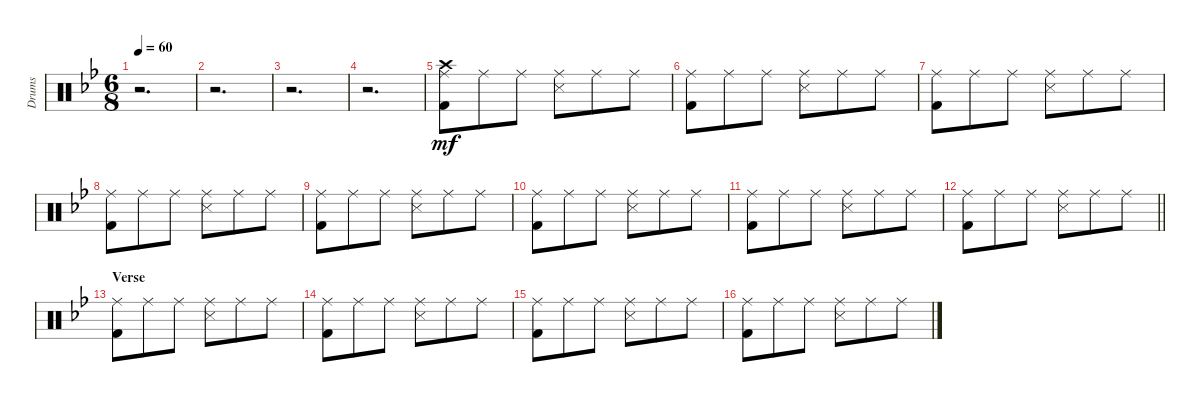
\track ("Drums" "Drums") {instrument percussion}
\staff {score}
\articulation defaults
\ts (6 8)
\tempo 60
\clef neutral
\ks bb
r.2{d dy mf} |
r.2{d} |
r.2{d} |
r.2{d} |
("Ride (middle)" "Crash high (hit)" "Kick (hit) 2").8 "Ride (middle)".8 "Ride (middle)".8 ("Ride (middle)" "Snare (side stick) 3").8 "Ride (middle)".8 "Ride (middle)".8 |
("Ride (middle)" "Kick (hit) 2").8 "Ride (middle)".8 "Ride (middle)".8 ("Ride (middle)" "Snare (side stick) 3").8 "Ride (middle)".8 "Ride (middle)".8 |
("Ride (middle)" "Kick (hit) 2").8 "Ride (middle)".8 "Ride (middle)".8 ("Ride (middle)" "Snare (side stick) 3").8 "Ride (middle)".8 "Ride (middle)".8 |
("Ride (middle)" "Kick (hit) 2").8 "Ride (middle)".8 "Ride (middle)".8 ("Ride (middle)" "Snare (side stick) 3").8 "Ride (middle)".8 "Ride (middle)".8 |
("Ride (middle)" "Kick (hit) 2").8 "Ride (middle)".8 "Ride (middle)".8 ("Ride (middle)" "Snare (side stick) 3").8 "Ride (middle)".8 "Ride (middle)".8 |
("Ride (middle)" "Kick (hit) 2").8 "Ride (middle)".8 "Ride (middle)".8 ("Ride (middle)" "Snare (side stick) 3").8 "Ride (middle)".8 "Ride (middle)".8 |
("Ride (middle)" "Kick (hit) 2").8 "Ride (middle)".8 "Ride (middle)".8 ("Ride (middle)" "Snare (side stick) 3").8 "Ride (middle)".8 "Ride (middle)".8 |
\barLineRight lightlight
("Ride (middle)" "Kick (hit) 2").8 "Ride (middle)".8 "Ride (middle)".8 ("Ride (middle)" "Snare (side stick) 3").8 "Ride (middle)".8 "Ride (middle)".8 |
\section ("" "Verse")
("Ride (middle)" "Kick (hit) 2").8 "Ride (middle)".8 "Ride (middle)".8 ("Ride (middle)" "Snare (side stick) 3").8 "Ride (middle)".8 "Ride (middle)".8 |
("Ride (middle)" "Kick (hit) 2").8 "Ride (middle)".8 "Ride (middle)".8 ("Ride (middle)" "Snare (side stick) 3").8 "Ride (middle)".8 "Ride (middle)".8 |
("Ride (middle)" "Kick (hit) 2").8 "Ride (middle)".8 "Ride (middle)".8 ("Ride (middle)" "Snare (side stick) 3").8 "Ride (middle)".8 "Ride (middle)".8 |
("Ride (middle)" "Kick (hit) 2").8 "Ride (middle)".8 "Ride (middle)".8 ("Ride (middle)" "Snare (side stick) 3").8 "Ride (middle)".8 "Ride (middle)".8
